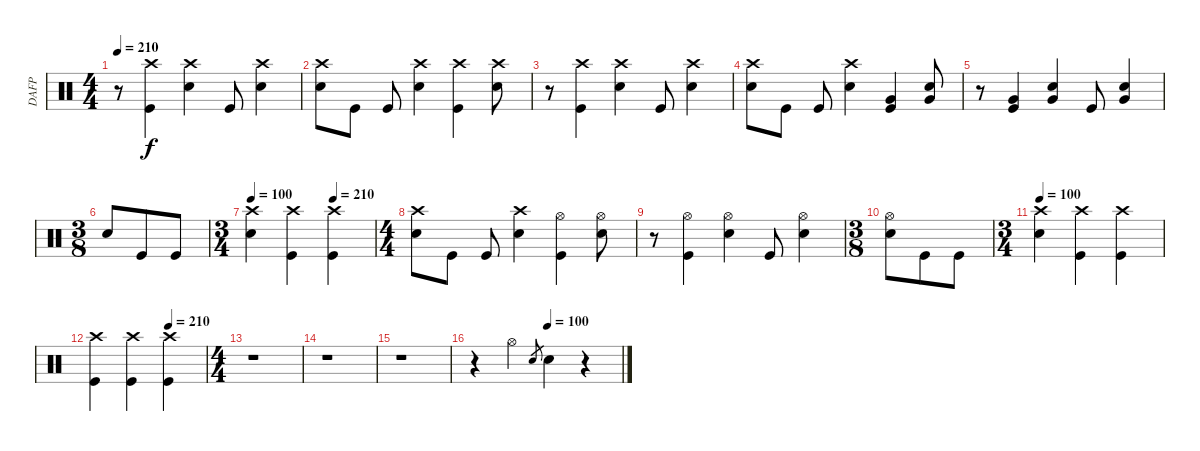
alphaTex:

\track ("DAFP" "DAFP") {instrument percussion}
\staff {score}
\articulation defaults
\ts (4 4)
\tempo 210
\clef neutral
\ks c
r.8{dy f} ("Kick (hit)" "Crash high (hit)").4 ("Crash high (hit)" "Snare (hit) 2").4 "Kick (hit)".8 ("Snare (hit) 2" "Crash high (hit)").4 |
("Crash high (hit)" "Snare (hit) 2").8 "Kick (hit)".8 "Kick (hit)".8 ("Crash high (hit)" "Snare (hit) 2").4 ("Kick (hit)" "Crash high (hit)").4 ("Snare (hit) 2" "Crash high (hit)").8 |
r.8 ("Kick (hit)" "Crash high (hit)").4 ("Crash high (hit)" "Snare (hit) 2").4 "Kick (hit)".8 ("Snare (hit) 2" "Crash high (hit)").4 |
("Crash high (hit)" "Snare (hit) 2").8 "Kick (hit)".8 "Kick (hit)".8 ("Crash high (hit)" "Snare (hit) 2").4 ("Kick (hit)" "Very Low Tom (hit)").4 ("Snare (hit) 2" "Very Low Tom (hit)").8 |
r.8 ("Kick (hit)" "Very Low Tom (hit)").4 ("Very Low Tom (hit)" "Snare (hit) 2").4 "Kick (hit)".8 ("Snare (hit) 2" "Very Low Tom (hit)").4 |
\ts (3 8)
"Snare (hit) 2".8 "Kick (hit)".8 "Kick (hit)".8 |
\ts (3 4)
\tempo 100
\tempo (210 0.6666666666666666)
("Crash high (hit)" "Snare (hit) 2").4 ("Kick (hit)" "Crash high (hit)").4 ("Kick (hit)" "Crash high (hit)").4 |
\ts (4 4)
("Crash high (hit)" "Snare (hit) 2").8 "Kick (hit)".8 "Kick (hit)".8 ("Snare (hit) 2" "Crash high (hit)").4 ("Kick (hit)" "Hi-Hat (open)").4 ("Snare (hit) 2" "Hi-Hat (open)").8 |
r.8 ("Kick (hit)" "Hi-Hat (open)").4 ("Snare (hit) 2" "Hi-Hat (open)").4 "Kick (hit)".8 ("Snare (hit) 2" "Hi-Hat (open)").4 |
\ts (3 8)
("Snare (hit) 2" "Hi-Hat (open)").8 "Kick (hit)".8 "Kick (hit)".8 |
\ts (3 4)
\tempo 100
("Crash high (hit)" "Snare (hit) 2").4 ("Kick (hit)" "Crash high (hit)").4 ("Kick (hit)" "Crash high (hit)").4 |
\tempo (210 0.6666666666666666)
("Kick (hit)" "Crash high (hit)").4 ("Kick (hit)" "Crash high (hit)").4 ("Kick (hit)" "Crash high (hit)").4 |
\ts (4 4)
r.1 |
r.1 |
r.1 |
\tempo (100 0.5)
r.4 "Hi-Hat (open)".4 "Snare (hit) 2".8{gr} "Snare (hit) 2".4 r.4
